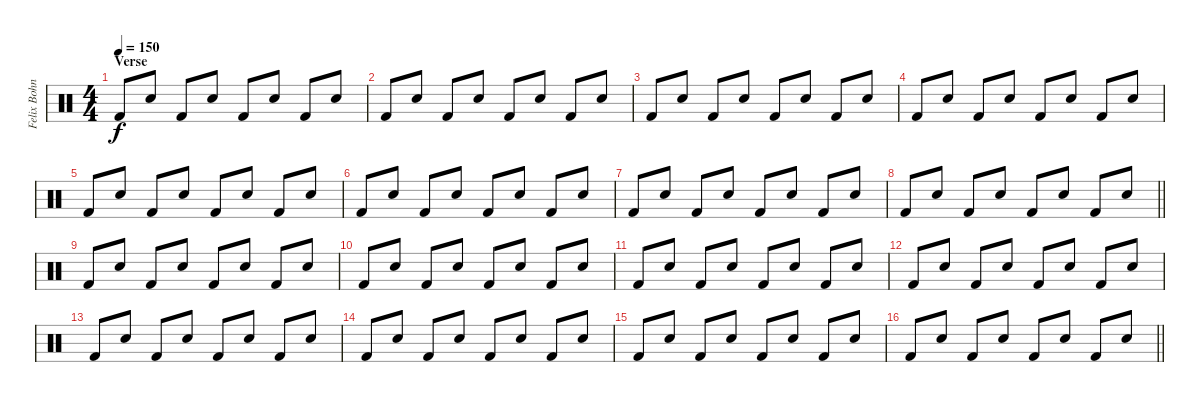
\track ("Felix Bohnke - Drums" "Felix Bohn") {mute instrument percussion}
\staff {score}
\articulation defaults
\ts (4 4)
\section ("" "Verse")
\tempo 150
\clef neutral
\ks c "Kick (hit) 2".8{dy f} "Snare (hit) 2".8 "Kick (hit) 2".8 "Snare (hit) 2".8 "Kick (hit) 2".8 "Snare (hit) 2".8 "Kick (hit) 2".8 "Snare (hit) 2".8
|
"Kick (hit) 2".8 "Snare (hit) 2".8 "Kick (hit) 2".8 "Snare (hit) 2".8 "Kick (hit) 2".8 "Snare (hit) 2".8 "Kick (hit) 2".8 "Snare (hit) 2".8 |
"Kick (hit) 2".8 "Snare (hit) 2".8 "Kick (hit) 2".8 "Snare (hit) 2".8 "Kick (hit) 2".8 "Snare (hit) 2".8 "Kick (hit) 2".8 "Snare (hit) 2".8 |
"Kick (hit) 2".8 "Snare (hit) 2".8 "Kick (hit) 2".8 "Snare (hit) 2".8 "Kick (hit) 2".8 "Snare (hit) 2".8 "Kick (hit) 2".8 "Snare (hit) 2".8 |
"Kick (hit) 2".8 "Snare (hit) 2".8 "Kick (hit) 2".8 "Snare (hit) 2".8 "Kick (hit) 2".8 "Snare (hit) 2".8 "Kick (hit) 2".8 "Snare (hit) 2".8 |
"Kick (hit) 2".8 "Snare (hit) 2".8 "Kick (hit) 2".8 "Snare (hit) 2".8 "Kick (hit) 2".8 "Snare (hit) 2".8 "Kick (hit) 2".8 "Snare (hit) 2".8 |
"Kick (hit) 2".8 "Snare (hit) 2".8 "Kick (hit) 2".8 "Snare (hit) 2".8 "Kick (hit) 2".8 "Snare (hit) 2".8 "Kick (hit) 2".8 "Snare (hit) 2".8 |
\barLineRight lightlight "Kick (hit) 2".8 "Snare (hit) 2".8 "Kick (hit) 2".8 "Snare (hit) 2".8 "Kick (hit) 2".8 "Snare (hit) 2".8 "Kick (hit) 2".8 "Snare (hit) 2".8
|
"Kick (hit) 2".8 "Snare (hit) 2".8 "Kick (hit) 2".8 "Snare (hit) 2".8 "Kick (hit) 2".8 "Snare (hit) 2".8 "Kick (hit) 2".8 "Snare (hit) 2".8 |
"Kick (hit) 2".8 "Snare (hit) 2".8 "Kick (hit) 2".8 "Snare (hit) 2".8 "Kick (hit) 2".8 "Snare (hit) 2".8 "Kick (hit) 2".8 "Snare (hit) 2".8 |
"Kick (hit) 2".8 "Snare (hit) 2".8 "Kick (hit) 2".8 "Snare (hit) 2".8 "Kick (hit) 2".8 "Snare (hit) 2".8 "Kick (hit) 2".8 "Snare (hit) 2".8 |
"Kick (hit) 2".8 "Snare (hit) 2".8 "Kick (hit) 2".8 "Snare (hit) 2".8 "Kick (hit) 2".8 "Snare (hit) 2".8 "Kick (hit) 2".8 "Snare (hit) 2".8 |
"Kick (hit) 2".8 "Snare (hit) 2".8 "Kick (hit) 2".8 "Snare (hit) 2".8 "Kick (hit) 2".8 "Snare (hit) 2".8 "Kick (hit) 2".8 "Snare (hit) 2".8 |
"Kick (hit) 2".8 "Snare (hit) 2".8 "Kick (hit) 2".8 "Snare (hit) 2".8 "Kick (hit) 2".8 "Snare (hit) 2".8 "Kick (hit) 2".8 "Snare (hit) 2".8 |
"Kick (hit) 2".8 "Snare (hit) 2".8 "Kick (hit) 2".8 "Snare (hit) 2".8 "Kick (hit) 2".8 "Snare (hit) 2".8 "Kick (hit) 2".8 "Snare (hit) 2".8 |
\barLineRight lightlight "Kick (hit) 2".8 "Snare (hit) 2".8 "Kick (hit) 2".8 "Snare (hit) 2".8 "Kick (hit) 2".8 "Snare (hit) 2".8 "Kick (hit) 2".8 "Snare (hit) 2".8
